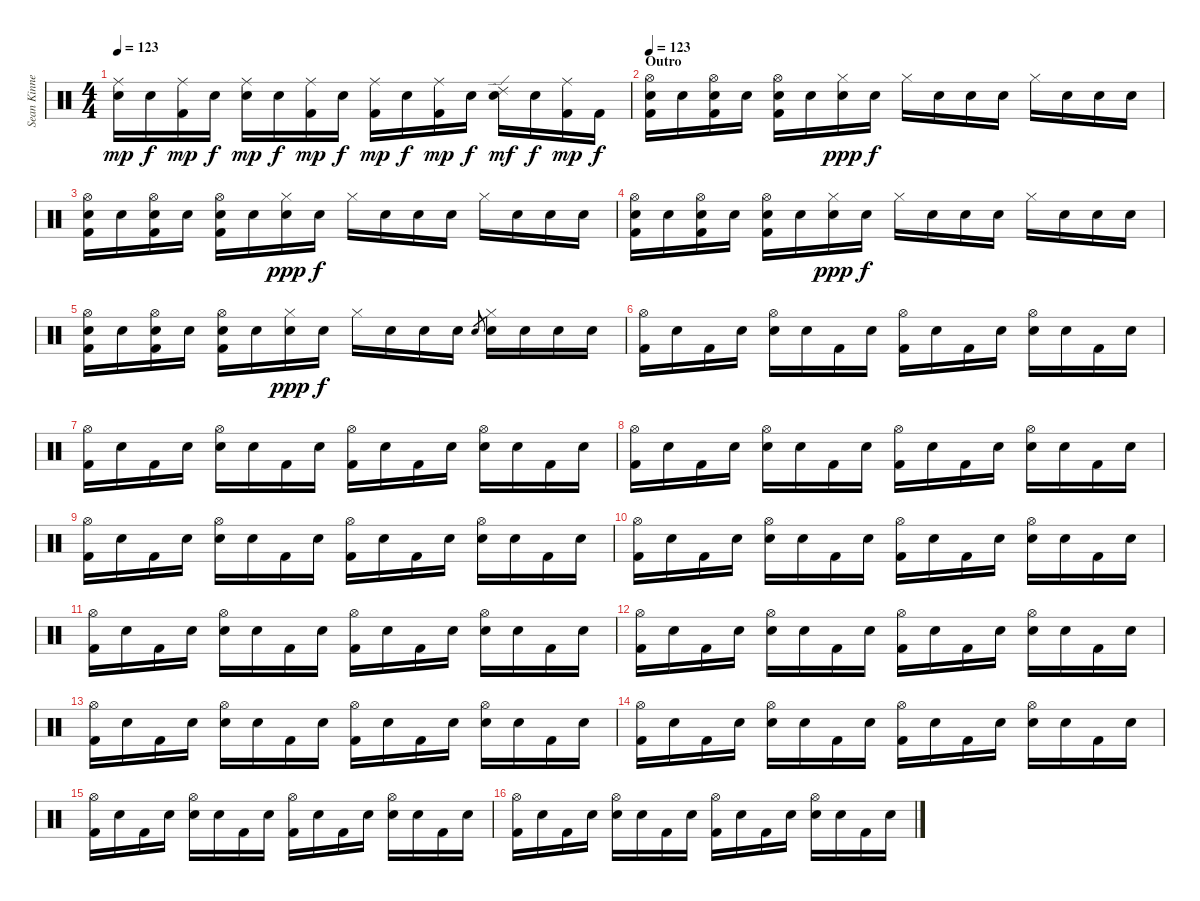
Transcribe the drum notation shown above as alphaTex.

\track ("Sean Kinney - Drums" "Sean Kinne") {instrument percussion}
\staff {score}
\articulation defaults
\ts (4 4)
\tempo 123
\clef neutral
\ks c
("Ride (middle)" "Snare (hit)").16{dy mp} "Snare (hit)".16{dy f} ("Ride (middle)" "Kick (hit) 2").16{dy mp} "Snare (hit)".16{dy f} ("Ride (middle)" "Electric Snare (hit)").16{dy mp} "Snare (hit)".16{dy f} ("Ride (middle)" "Kick (hit) 2").16{dy mp} "Snare (hit)".16{dy f} ("Ride (middle)" "Kick (hit) 2").16{dy mp} "Snare (hit)".16{dy f} ("Ride (middle)" "Kick (hit) 2").16{dy mp} "Snare (hit)".16{dy f} ("Ride (edge) 2" "Electric Snare (hit)").16{dy mf} "Snare (hit)".16{dy f} ("Ride (middle)" "Kick (hit) 2").16{dy mp} "Kick (hit) 2".16{dy f} |
\section ("" "Outro")
\tempo 123
("Hi-Hat (open)" "Electric Snare (hit)" "Kick (hit) 2").16{volume 16 balance 8} "Snare (hit)".16 ("Hi-Hat (open)" "Electric Snare (hit)" "Kick (hit) 2").16 "Snare (hit)".16 ("Hi-Hat (open)" "Electric Snare (hit)" "Kick (hit) 2").16 "Snare (hit)".16 ("Hi-Hat (closed)" "Snare (hit)").16{dy ppp} "Snare (hit)".16{dy f} "Hi-Hat (closed)".16 "Snare (hit)".16 "Snare (hit)".16 "Snare (hit)".16 "Hi-Hat (closed)".16 "Snare (hit)".16 "Snare (hit)".16 "Snare (hit)".16 |
("Hi-Hat (open)" "Electric Snare (hit)" "Kick (hit) 2").16 "Snare (hit)".16 ("Hi-Hat (open)" "Electric Snare (hit)" "Kick (hit) 2").16 "Snare (hit)".16 ("Hi-Hat (open)" "Electric Snare (hit)" "Kick (hit) 2").16 "Snare (hit)".16 ("Hi-Hat (closed)" "Snare (hit)").16{dy ppp} "Snare (hit)".16{dy f} "Hi-Hat (closed)".16 "Snare (hit)".16 "Snare (hit)".16 "Snare (hit)".16 "Hi-Hat (closed)".16 "Snare (hit)".16 "Snare (hit)".16 "Snare (hit)".16 |
("Hi-Hat (open)" "Electric Snare (hit)" "Kick (hit) 2").16 "Snare (hit)".16 ("Hi-Hat (open)" "Electric Snare (hit)" "Kick (hit) 2").16 "Snare (hit)".16 ("Hi-Hat (open)" "Electric Snare (hit)" "Kick (hit) 2").16 "Snare (hit)".16 ("Hi-Hat (closed)" "Snare (hit)").16{dy ppp} "Snare (hit)".16{dy f} "Hi-Hat (closed)".16 "Snare (hit)".16 "Snare (hit)".16 "Snare (hit)".16 "Hi-Hat (closed)".16 "Snare (hit)".16 "Snare (hit)".16 "Snare (hit)".16 |
("Hi-Hat (open)" "Electric Snare (hit)" "Kick (hit) 2").16 "Snare (hit)".16 ("Hi-Hat (open)" "Electric Snare (hit)" "Kick (hit) 2").16 "Snare (hit)".16 ("Hi-Hat (open)" "Electric Snare (hit)" "Kick (hit) 2").16 "Snare (hit)".16 ("Hi-Hat (closed)" "Snare (hit)").16{dy ppp} "Snare (hit)".16{dy f} "Hi-Hat (closed)".16 "Snare (hit)".16 "Snare (hit)".16 "Snare (hit)".16 "Electric Snare (hit)".8{gr} ("Hi-Hat (closed)" "Electric Snare (hit)").16 "Snare (hit)".16 "Snare (hit)".16 "Snare (hit)".16 |
("Hi-Hat (open)" "Kick (hit) 2").16 "Snare (hit)".16 "Kick (hit) 2".16 "Snare (hit)".16 ("Hi-Hat (open)" "Electric Snare (hit)").16 "Snare (hit)".16 "Kick (hit) 2".16 "Snare (hit)".16 ("Hi-Hat (open)" "Kick (hit) 2").16 "Snare (hit)".16 "Kick (hit) 2".16 "Snare (hit)".16 ("Hi-Hat (open)" "Electric Snare (hit)").16 "Snare (hit)".16 "Kick (hit) 2".16 "Snare (hit)".16 |
("Hi-Hat (open)" "Kick (hit) 2").16 "Snare (hit)".16 "Kick (hit) 2".16 "Snare (hit)".16 ("Hi-Hat (open)" "Electric Snare (hit)").16 "Snare (hit)".16 "Kick (hit) 2".16 "Snare (hit)".16 ("Hi-Hat (open)" "Kick (hit) 2").16 "Snare (hit)".16 "Kick (hit) 2".16 "Snare (hit)".16 ("Hi-Hat (open)" "Electric Snare (hit)").16 "Snare (hit)".16 "Kick (hit) 2".16 "Snare (hit)".16 |
("Hi-Hat (open)" "Kick (hit) 2").16 "Snare (hit)".16 "Kick (hit) 2".16 "Snare (hit)".16 ("Hi-Hat (open)" "Electric Snare (hit)").16 "Snare (hit)".16 "Kick (hit) 2".16 "Snare (hit)".16 ("Hi-Hat (open)" "Kick (hit) 2").16 "Snare (hit)".16 "Kick (hit) 2".16 "Snare (hit)".16 ("Hi-Hat (open)" "Electric Snare (hit)").16 "Snare (hit)".16 "Kick (hit) 2".16 "Snare (hit)".16 |
("Hi-Hat (open)" "Kick (hit) 2").16 "Snare (hit)".16 "Kick (hit) 2".16 "Snare (hit)".16 ("Hi-Hat (open)" "Electric Snare (hit)").16 "Snare (hit)".16 "Kick (hit) 2".16 "Snare (hit)".16 ("Hi-Hat (open)" "Kick (hit) 2").16 "Snare (hit)".16 "Kick (hit) 2".16 "Snare (hit)".16 ("Hi-Hat (open)" "Electric Snare (hit)").16 "Snare (hit)".16 "Kick (hit) 2".16 "Snare (hit)".16 |
("Hi-Hat (open)" "Kick (hit) 2").16 "Snare (hit)".16 "Kick (hit) 2".16 "Snare (hit)".16 ("Hi-Hat (open)" "Electric Snare (hit)").16 "Snare (hit)".16 "Kick (hit) 2".16 "Snare (hit)".16 ("Hi-Hat (open)" "Kick (hit) 2").16 "Snare (hit)".16 "Kick (hit) 2".16 "Snare (hit)".16 ("Hi-Hat (open)" "Electric Snare (hit)").16 "Snare (hit)".16 "Kick (hit) 2".16 "Snare (hit)".16 |
("Hi-Hat (open)" "Kick (hit) 2").16 "Snare (hit)".16 "Kick (hit) 2".16 "Snare (hit)".16 ("Hi-Hat (open)" "Electric Snare (hit)").16 "Snare (hit)".16 "Kick (hit) 2".16 "Snare (hit)".16 ("Hi-Hat (open)" "Kick (hit) 2").16 "Snare (hit)".16 "Kick (hit) 2".16 "Snare (hit)".16 ("Hi-Hat (open)" "Electric Snare (hit)").16 "Snare (hit)".16 "Kick (hit) 2".16 "Snare (hit)".16 |
("Hi-Hat (open)" "Kick (hit) 2").16 "Snare (hit)".16 "Kick (hit) 2".16 "Snare (hit)".16 ("Hi-Hat (open)" "Electric Snare (hit)").16 "Snare (hit)".16 "Kick (hit) 2".16 "Snare (hit)".16 ("Hi-Hat (open)" "Kick (hit) 2").16 "Snare (hit)".16 "Kick (hit) 2".16 "Snare (hit)".16 ("Hi-Hat (open)" "Electric Snare (hit)").16 "Snare (hit)".16 "Kick (hit) 2".16 "Snare (hit)".16 |
("Hi-Hat (open)" "Kick (hit) 2").16 "Snare (hit)".16 "Kick (hit) 2".16 "Snare (hit)".16 ("Hi-Hat (open)" "Electric Snare (hit)").16 "Snare (hit)".16 "Kick (hit) 2".16 "Snare (hit)".16 ("Hi-Hat (open)" "Kick (hit) 2").16 "Snare (hit)".16 "Kick (hit) 2".16 "Snare (hit)".16 ("Hi-Hat (open)" "Electric Snare (hit)").16 "Snare (hit)".16 "Kick (hit) 2".16 "Snare (hit)".16 |
("Hi-Hat (open)" "Kick (hit) 2").16 "Snare (hit)".16 "Kick (hit) 2".16 "Snare (hit)".16 ("Hi-Hat (open)" "Electric Snare (hit)").16 "Snare (hit)".16 "Kick (hit) 2".16 "Snare (hit)".16 ("Hi-Hat (open)" "Kick (hit) 2").16 "Snare (hit)".16 "Kick (hit) 2".16 "Snare (hit)".16 ("Hi-Hat (open)" "Electric Snare (hit)").16 "Snare (hit)".16 "Kick (hit) 2".16 "Snare (hit)".16 |
("Hi-Hat (open)" "Kick (hit) 2").16 "Snare (hit)".16 "Kick (hit) 2".16 "Snare (hit)".16 ("Hi-Hat (open)" "Electric Snare (hit)").16 "Snare (hit)".16 "Kick (hit) 2".16 "Snare (hit)".16 ("Hi-Hat (open)" "Kick (hit) 2").16 "Snare (hit)".16 "Kick (hit) 2".16 "Snare (hit)".16 ("Hi-Hat (open)" "Electric Snare (hit)").16 "Snare (hit)".16 "Kick (hit) 2".16 "Snare (hit)".16 |
("Hi-Hat (open)" "Kick (hit) 2").16 "Snare (hit)".16 "Kick (hit) 2".16 "Snare (hit)".16 ("Hi-Hat (open)" "Electric Snare (hit)").16 "Snare (hit)".16 "Kick (hit) 2".16 "Snare (hit)".16 ("Hi-Hat (open)" "Kick (hit) 2").16 "Snare (hit)".16 "Kick (hit) 2".16 "Snare (hit)".16 ("Hi-Hat (open)" "Electric Snare (hit)").16 "Snare (hit)".16 "Kick (hit) 2".16 "Snare (hit)".16
